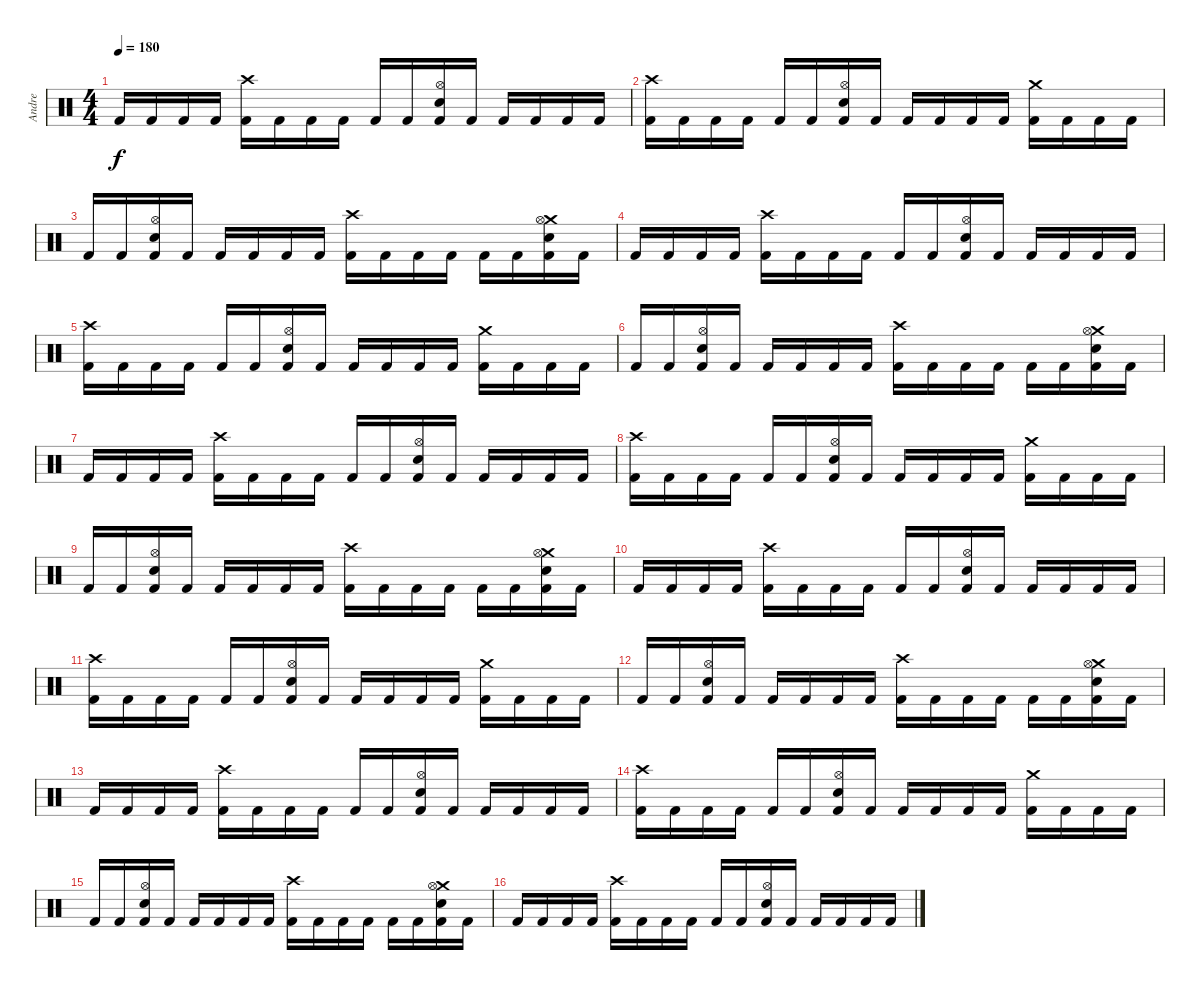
\track ("Andre" "Andre") {instrument percussion}
\staff {score}
\articulation defaults
\ts (4 4)
\tempo 180
\clef neutral
\ks c "Kick (hit) 2".16{dy f} "Kick (hit) 2".16 "Kick (hit) 2".16 "Kick (hit) 2".16
("Crash high (hit)" "Kick (hit) 2").16 "Kick (hit) 2".16 "Kick (hit) 2".16 "Kick (hit) 2".16 "Kick (hit) 2".16 "Kick (hit) 2".16 ("Hi-Hat (open)" "Snare (hit) 2" "Kick (hit) 2").16 "Kick (hit) 2".16 "Kick (hit) 2".16 "Kick (hit) 2".16 "Kick (hit) 2".16 "Kick (hit) 2".16 |
("Crash high (hit)" "Kick (hit) 2").16 "Kick (hit) 2".16 "Kick (hit) 2".16 "Kick (hit) 2".16 "Kick (hit) 2".16 "Kick (hit) 2".16 ("Hi-Hat (open)" "Snare (hit) 2" "Kick (hit) 2").16 "Kick (hit) 2".16 "Kick (hit) 2".16 "Kick (hit) 2".16 "Kick (hit) 2".16 "Kick (hit) 2".16 ("Crash medium (hit)" "Kick (hit) 2").16 "Kick (hit) 2".16 "Kick (hit) 2".16 "Kick (hit) 2".16 |
"Kick (hit) 2".16 "Kick (hit) 2".16 ("Hi-Hat (open)" "Snare (hit) 2" "Kick (hit) 2").16 "Kick (hit) 2".16 "Kick (hit) 2".16 "Kick (hit) 2".16 "Kick (hit) 2".16 "Kick (hit) 2".16 ("Crash high (hit)" "Kick (hit) 2").16 "Kick (hit) 2".16 "Kick (hit) 2".16 "Kick (hit) 2".16 "Kick (hit) 2".16 "Kick (hit) 2".16 ("Crash medium (hit)" "Hi-Hat (open)" "Snare (hit) 2" "Kick (hit) 2").16 "Kick (hit) 2".16 |
"Kick (hit) 2".16 "Kick (hit) 2".16 "Kick (hit) 2".16 "Kick (hit) 2".16 ("Crash high (hit)" "Kick (hit) 2").16 "Kick (hit) 2".16 "Kick (hit) 2".16 "Kick (hit) 2".16 "Kick (hit) 2".16 "Kick (hit) 2".16 ("Hi-Hat (open)" "Snare (hit) 2" "Kick (hit) 2").16 "Kick (hit) 2".16 "Kick (hit) 2".16 "Kick (hit) 2".16 "Kick (hit) 2".16 "Kick (hit) 2".16 |
("Crash high (hit)" "Kick (hit) 2").16 "Kick (hit) 2".16 "Kick (hit) 2".16 "Kick (hit) 2".16 "Kick (hit) 2".16 "Kick (hit) 2".16 ("Hi-Hat (open)" "Snare (hit) 2" "Kick (hit) 2").16 "Kick (hit) 2".16 "Kick (hit) 2".16 "Kick (hit) 2".16 "Kick (hit) 2".16 "Kick (hit) 2".16 ("Crash medium (hit)" "Kick (hit) 2").16 "Kick (hit) 2".16 "Kick (hit) 2".16 "Kick (hit) 2".16 |
"Kick (hit) 2".16 "Kick (hit) 2".16 ("Hi-Hat (open)" "Snare (hit) 2" "Kick (hit) 2").16 "Kick (hit) 2".16 "Kick (hit) 2".16 "Kick (hit) 2".16 "Kick (hit) 2".16 "Kick (hit) 2".16 ("Crash high (hit)" "Kick (hit) 2").16 "Kick (hit) 2".16 "Kick (hit) 2".16 "Kick (hit) 2".16 "Kick (hit) 2".16 "Kick (hit) 2".16 ("Crash medium (hit)" "Hi-Hat (open)" "Snare (hit) 2" "Kick (hit) 2").16 "Kick (hit) 2".16 |
"Kick (hit) 2".16 "Kick (hit) 2".16 "Kick (hit) 2".16 "Kick (hit) 2".16 ("Crash high (hit)" "Kick (hit) 2").16 "Kick (hit) 2".16 "Kick (hit) 2".16 "Kick (hit) 2".16 "Kick (hit) 2".16 "Kick (hit) 2".16 ("Hi-Hat (open)" "Snare (hit) 2" "Kick (hit) 2").16 "Kick (hit) 2".16 "Kick (hit) 2".16 "Kick (hit) 2".16 "Kick (hit) 2".16 "Kick (hit) 2".16 |
("Crash high (hit)" "Kick (hit) 2").16 "Kick (hit) 2".16 "Kick (hit) 2".16 "Kick (hit) 2".16 "Kick (hit) 2".16 "Kick (hit) 2".16 ("Hi-Hat (open)" "Snare (hit) 2" "Kick (hit) 2").16 "Kick (hit) 2".16 "Kick (hit) 2".16 "Kick (hit) 2".16 "Kick (hit) 2".16 "Kick (hit) 2".16 ("Crash medium (hit)" "Kick (hit) 2").16 "Kick (hit) 2".16 "Kick (hit) 2".16 "Kick (hit) 2".16 |
"Kick (hit) 2".16 "Kick (hit) 2".16 ("Hi-Hat (open)" "Snare (hit) 2" "Kick (hit) 2").16 "Kick (hit) 2".16 "Kick (hit) 2".16 "Kick (hit) 2".16 "Kick (hit) 2".16 "Kick (hit) 2".16 ("Crash high (hit)" "Kick (hit) 2").16 "Kick (hit) 2".16 "Kick (hit) 2".16 "Kick (hit) 2".16 "Kick (hit) 2".16 "Kick (hit) 2".16 ("Crash medium (hit)" "Hi-Hat (open)" "Snare (hit) 2" "Kick (hit) 2").16 "Kick (hit) 2".16 |
"Kick (hit) 2".16 "Kick (hit) 2".16 "Kick (hit) 2".16 "Kick (hit) 2".16 ("Crash high (hit)" "Kick (hit) 2").16 "Kick (hit) 2".16 "Kick (hit) 2".16 "Kick (hit) 2".16 "Kick (hit) 2".16 "Kick (hit) 2".16 ("Hi-Hat (open)" "Snare (hit) 2" "Kick (hit) 2").16 "Kick (hit) 2".16 "Kick (hit) 2".16 "Kick (hit) 2".16 "Kick (hit) 2".16 "Kick (hit) 2".16 |
("Crash high (hit)" "Kick (hit) 2").16 "Kick (hit) 2".16 "Kick (hit) 2".16 "Kick (hit) 2".16 "Kick (hit) 2".16 "Kick (hit) 2".16 ("Hi-Hat (open)" "Snare (hit) 2" "Kick (hit) 2").16 "Kick (hit) 2".16 "Kick (hit) 2".16 "Kick (hit) 2".16 "Kick (hit) 2".16 "Kick (hit) 2".16 ("Crash medium (hit)" "Kick (hit) 2").16 "Kick (hit) 2".16 "Kick (hit) 2".16 "Kick (hit) 2".16 |
"Kick (hit) 2".16 "Kick (hit) 2".16 ("Hi-Hat (open)" "Snare (hit) 2" "Kick (hit) 2").16 "Kick (hit) 2".16 "Kick (hit) 2".16 "Kick (hit) 2".16 "Kick (hit) 2".16 "Kick (hit) 2".16 ("Crash high (hit)" "Kick (hit) 2").16 "Kick (hit) 2".16 "Kick (hit) 2".16 "Kick (hit) 2".16 "Kick (hit) 2".16 "Kick (hit) 2".16 ("Crash medium (hit)" "Hi-Hat (open)" "Snare (hit) 2" "Kick (hit) 2").16 "Kick (hit) 2".16 |
"Kick (hit) 2".16 "Kick (hit) 2".16 "Kick (hit) 2".16 "Kick (hit) 2".16 ("Crash high (hit)" "Kick (hit) 2").16 "Kick (hit) 2".16 "Kick (hit) 2".16 "Kick (hit) 2".16 "Kick (hit) 2".16 "Kick (hit) 2".16 ("Hi-Hat (open)" "Snare (hit) 2" "Kick (hit) 2").16 "Kick (hit) 2".16 "Kick (hit) 2".16 "Kick (hit) 2".16 "Kick (hit) 2".16 "Kick (hit) 2".16 |
("Crash high (hit)" "Kick (hit) 2").16 "Kick (hit) 2".16 "Kick (hit) 2".16 "Kick (hit) 2".16 "Kick (hit) 2".16 "Kick (hit) 2".16 ("Hi-Hat (open)" "Snare (hit) 2" "Kick (hit) 2").16 "Kick (hit) 2".16 "Kick (hit) 2".16 "Kick (hit) 2".16 "Kick (hit) 2".16 "Kick (hit) 2".16 ("Crash medium (hit)" "Kick (hit) 2").16 "Kick (hit) 2".16 "Kick (hit) 2".16 "Kick (hit) 2".16 |
"Kick (hit) 2".16 "Kick (hit) 2".16 ("Hi-Hat (open)" "Snare (hit) 2" "Kick (hit) 2").16 "Kick (hit) 2".16 "Kick (hit) 2".16 "Kick (hit) 2".16 "Kick (hit) 2".16 "Kick (hit) 2".16 ("Crash high (hit)" "Kick (hit) 2").16 "Kick (hit) 2".16 "Kick (hit) 2".16 "Kick (hit) 2".16 "Kick (hit) 2".16 "Kick (hit) 2".16 ("Crash medium (hit)" "Hi-Hat (open)" "Snare (hit) 2" "Kick (hit) 2").16 "Kick (hit) 2".16 |
"Kick (hit) 2".16 "Kick (hit) 2".16 "Kick (hit) 2".16 "Kick (hit) 2".16 ("Crash high (hit)" "Kick (hit) 2").16 "Kick (hit) 2".16 "Kick (hit) 2".16 "Kick (hit) 2".16 "Kick (hit) 2".16 "Kick (hit) 2".16 ("Hi-Hat (open)" "Snare (hit) 2" "Kick (hit) 2").16 "Kick (hit) 2".16 "Kick (hit) 2".16 "Kick (hit) 2".16 "Kick (hit) 2".16 "Kick (hit) 2".16
